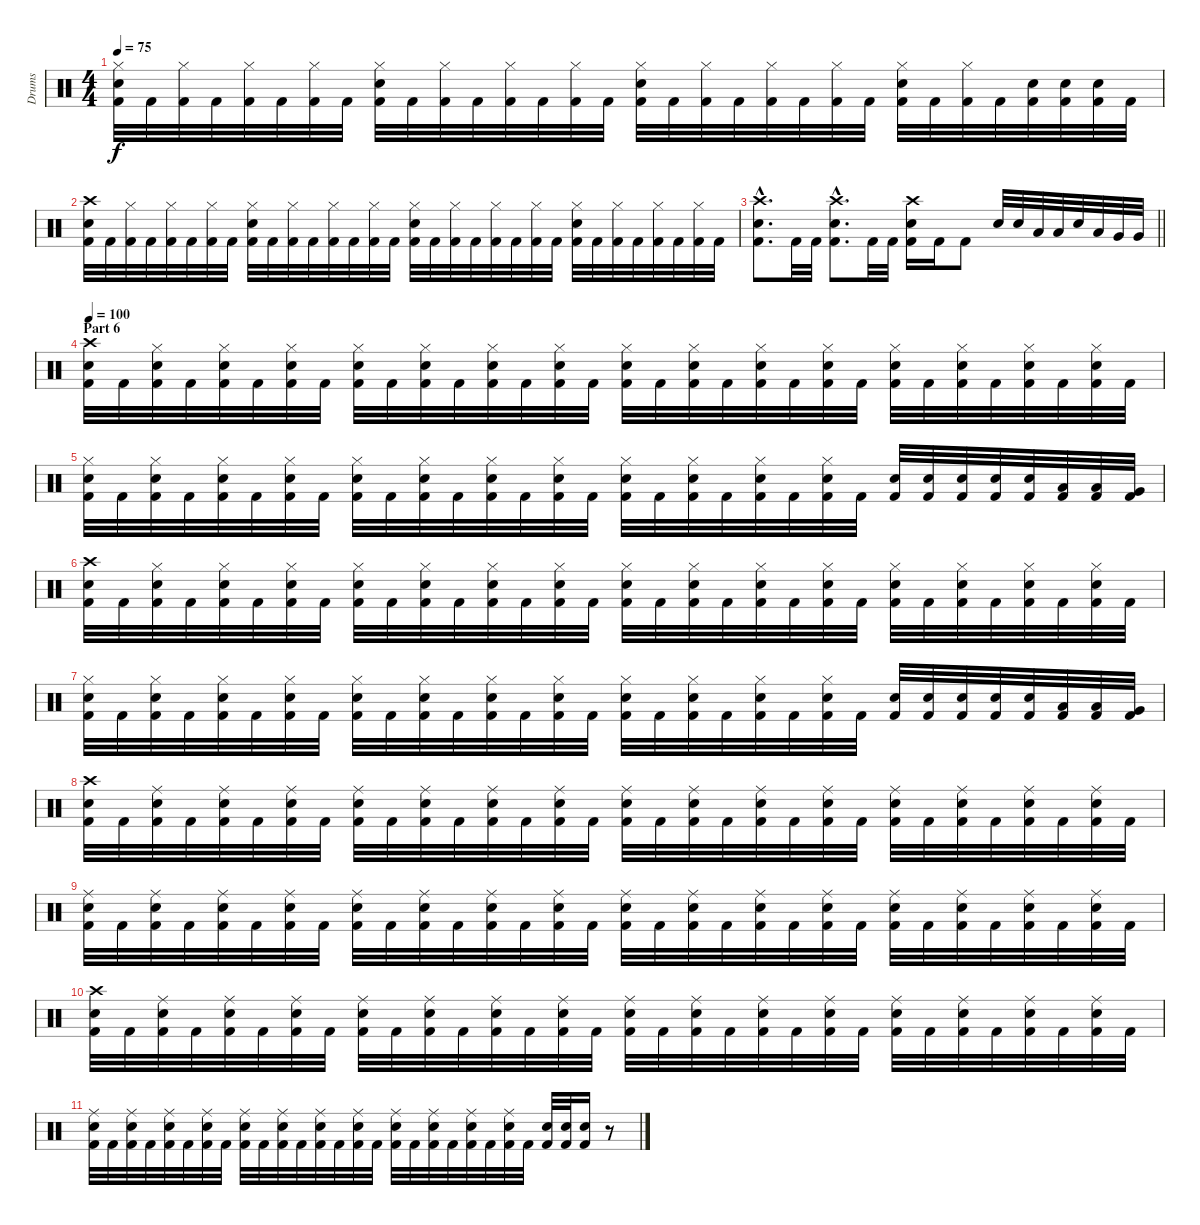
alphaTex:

\track ("Drums" "Drums") {instrument percussion}
\staff {score}
\articulation defaults
\ts (4 4)
\tempo 75
\clef neutral
\ks c
("Hi-Hat (closed)" "Electric Snare (hit)" "Kick (hit) 2").32{dy f} "Kick (hit) 2".32 ("Hi-Hat (closed)" "Kick (hit) 2").32 "Kick (hit) 2".32 ("Hi-Hat (closed)" "Kick (hit) 2").32 "Kick (hit) 2".32 ("Hi-Hat (closed)" "Kick (hit) 2").32 "Kick (hit) 2".32 ("Hi-Hat (closed)" "Electric Snare (hit)" "Kick (hit) 2").32 "Kick (hit) 2".32 ("Hi-Hat (closed)" "Kick (hit) 2").32 "Kick (hit) 2".32 ("Hi-Hat (closed)" "Kick (hit) 2").32 "Kick (hit) 2".32 ("Hi-Hat (closed)" "Kick (hit) 2").32 "Kick (hit) 2".32 ("Hi-Hat (closed)" "Electric Snare (hit)" "Kick (hit) 2").32 "Kick (hit) 2".32 ("Hi-Hat (closed)" "Kick (hit) 2").32 "Kick (hit) 2".32 ("Hi-Hat (closed)" "Kick (hit) 2").32 "Kick (hit) 2".32 ("Hi-Hat (closed)" "Kick (hit) 2").32 "Kick (hit) 2".32 ("Hi-Hat (closed)" "Electric Snare (hit)" "Kick (hit) 2").32 "Kick (hit) 2".32 ("Hi-Hat (closed)" "Kick (hit) 2").32 "Kick (hit) 2".32 ("Electric Snare (hit)" "Kick (hit) 2").32 ("Electric Snare (hit)" "Kick (hit) 2").32 ("Electric Snare (hit)" "Kick (hit) 2").32 "Kick (hit) 2".32 |
("Crash high (hit)" "Electric Snare (hit)" "Kick (hit) 2").32 "Kick (hit) 2".32 ("Hi-Hat (closed)" "Kick (hit) 2").32 "Kick (hit) 2".32 ("Hi-Hat (closed)" "Kick (hit) 2").32 "Kick (hit) 2".32 ("Hi-Hat (closed)" "Kick (hit) 2").32 "Kick (hit) 2".32 ("Hi-Hat (closed)" "Electric Snare (hit)" "Kick (hit) 2").32 "Kick (hit) 2".32 ("Hi-Hat (closed)" "Kick (hit) 2").32 "Kick (hit) 2".32 ("Hi-Hat (closed)" "Kick (hit) 2").32 "Kick (hit) 2".32 ("Hi-Hat (closed)" "Kick (hit) 2").32 "Kick (hit) 2".32 ("Hi-Hat (closed)" "Electric Snare (hit)" "Kick (hit) 2").32 "Kick (hit) 2".32 ("Hi-Hat (closed)" "Kick (hit) 2").32 "Kick (hit) 2".32 ("Hi-Hat (closed)" "Kick (hit) 2").32 "Kick (hit) 2".32 ("Hi-Hat (closed)" "Kick (hit) 2").32 "Kick (hit) 2".32 ("Hi-Hat (closed)" "Electric Snare (hit)" "Kick (hit) 2").32 "Kick (hit) 2".32 ("Hi-Hat (closed)" "Kick (hit) 2").32 "Kick (hit) 2".32 ("Hi-Hat (closed)" "Kick (hit) 2").32 "Kick (hit) 2".32 ("Hi-Hat (closed)" "Kick (hit) 2").32 "Kick (hit) 2".32 |
\barLineRight lightlight
("Crash high (hit)"{hac} "Electric Snare (hit)"{hac} "Kick (hit) 2"{hac}).8{d} "Kick (hit) 2".32 "Kick (hit) 2".32 ("Crash high (hit)"{hac} "Electric Snare (hit)"{hac} "Kick (hit) 2"{hac}).8{d} "Kick (hit) 2".32 "Kick (hit) 2".32 ("Crash high (hit)" "Electric Snare (hit)" "Kick (hit) 2").16 "Kick (hit) 2".16 "Kick (hit) 2".8 "Electric Snare (hit)".32 "Electric Snare (hit)".32 "Low Tom (hit)".32 "Low Tom (hit)".32 "Electric Snare (hit)".32 "Low Tom (hit)".32 "Very Low Tom (hit)".32 "Very Low Tom (hit)".32 |
\section ("" "Part 6")
\tempo 100
("Crash high (hit)" "Electric Snare (hit)" "Kick (hit) 2").32 "Kick (hit) 2".32 ("Hi-Hat (closed)" "Electric Snare (hit)" "Kick (hit) 2").32 "Kick (hit) 2".32 ("Hi-Hat (closed)" "Electric Snare (hit)" "Kick (hit) 2").32 "Kick (hit) 2".32 ("Hi-Hat (closed)" "Electric Snare (hit)" "Kick (hit) 2").32 "Kick (hit) 2".32 ("Hi-Hat (closed)" "Electric Snare (hit)" "Kick (hit) 2").32 "Kick (hit) 2".32 ("Hi-Hat (closed)" "Electric Snare (hit)" "Kick (hit) 2").32 "Kick (hit) 2".32 ("Hi-Hat (closed)" "Electric Snare (hit)" "Kick (hit) 2").32 "Kick (hit) 2".32 ("Hi-Hat (closed)" "Electric Snare (hit)" "Kick (hit) 2").32 "Kick (hit) 2".32 ("Hi-Hat (closed)" "Electric Snare (hit)" "Kick (hit) 2").32 "Kick (hit) 2".32 ("Hi-Hat (closed)" "Electric Snare (hit)" "Kick (hit) 2").32 "Kick (hit) 2".32 ("Hi-Hat (closed)" "Electric Snare (hit)" "Kick (hit) 2").32 "Kick (hit) 2".32 ("Hi-Hat (closed)" "Electric Snare (hit)" "Kick (hit) 2").32 "Kick (hit) 2".32 ("Hi-Hat (closed)" "Electric Snare (hit)" "Kick (hit) 2").32 "Kick (hit) 2".32 ("Hi-Hat (closed)" "Electric Snare (hit)" "Kick (hit) 2").32 "Kick (hit) 2".32 ("Hi-Hat (closed)" "Electric Snare (hit)" "Kick (hit) 2").32 "Kick (hit) 2".32 ("Hi-Hat (closed)" "Electric Snare (hit)" "Kick (hit) 2").32 "Kick (hit) 2".32 |
("Hi-Hat (closed)" "Electric Snare (hit)" "Kick (hit) 2").32 "Kick (hit) 2".32 ("Hi-Hat (closed)" "Electric Snare (hit)" "Kick (hit) 2").32 "Kick (hit) 2".32 ("Hi-Hat (closed)" "Electric Snare (hit)" "Kick (hit) 2").32 "Kick (hit) 2".32 ("Hi-Hat (closed)" "Electric Snare (hit)" "Kick (hit) 2").32 "Kick (hit) 2".32 ("Hi-Hat (closed)" "Electric Snare (hit)" "Kick (hit) 2").32 "Kick (hit) 2".32 ("Hi-Hat (closed)" "Electric Snare (hit)" "Kick (hit) 2").32 "Kick (hit) 2".32 ("Hi-Hat (closed)" "Electric Snare (hit)" "Kick (hit) 2").32 "Kick (hit) 2".32 ("Hi-Hat (closed)" "Electric Snare (hit)" "Kick (hit) 2").32 "Kick (hit) 2".32 ("Hi-Hat (closed)" "Electric Snare (hit)" "Kick (hit) 2").32 "Kick (hit) 2".32 ("Hi-Hat (closed)" "Electric Snare (hit)" "Kick (hit) 2").32 "Kick (hit) 2".32 ("Hi-Hat (closed)" "Electric Snare (hit)" "Kick (hit) 2").32 "Kick (hit) 2".32 ("Hi-Hat (closed)" "Electric Snare (hit)" "Kick (hit) 2").32 "Kick (hit) 2".32 ("Electric Snare (hit)" "Kick (hit) 2").32 ("Electric Snare (hit)" "Kick (hit) 2").32 ("Electric Snare (hit)" "Kick (hit) 2").32 ("Electric Snare (hit)" "Kick (hit) 2").32 ("Electric Snare (hit)" "Kick (hit) 2").32 ("Low Tom (hit)" "Kick (hit) 2").32 ("Low Tom (hit)" "Kick (hit) 2").32 ("Very Low Tom (hit)" "Kick (hit) 2").32 |
("Crash high (hit)" "Electric Snare (hit)" "Kick (hit) 2").32 "Kick (hit) 2".32 ("Hi-Hat (closed)" "Electric Snare (hit)" "Kick (hit) 2").32 "Kick (hit) 2".32 ("Hi-Hat (closed)" "Electric Snare (hit)" "Kick (hit) 2").32 "Kick (hit) 2".32 ("Hi-Hat (closed)" "Electric Snare (hit)" "Kick (hit) 2").32 "Kick (hit) 2".32 ("Hi-Hat (closed)" "Electric Snare (hit)" "Kick (hit) 2").32 "Kick (hit) 2".32 ("Hi-Hat (closed)" "Electric Snare (hit)" "Kick (hit) 2").32 "Kick (hit) 2".32 ("Hi-Hat (closed)" "Electric Snare (hit)" "Kick (hit) 2").32 "Kick (hit) 2".32 ("Hi-Hat (closed)" "Electric Snare (hit)" "Kick (hit) 2").32 "Kick (hit) 2".32 ("Hi-Hat (closed)" "Electric Snare (hit)" "Kick (hit) 2").32 "Kick (hit) 2".32 ("Hi-Hat (closed)" "Electric Snare (hit)" "Kick (hit) 2").32 "Kick (hit) 2".32 ("Hi-Hat (closed)" "Electric Snare (hit)" "Kick (hit) 2").32 "Kick (hit) 2".32 ("Hi-Hat (closed)" "Electric Snare (hit)" "Kick (hit) 2").32 "Kick (hit) 2".32 ("Hi-Hat (closed)" "Electric Snare (hit)" "Kick (hit) 2").32 "Kick (hit) 2".32 ("Hi-Hat (closed)" "Electric Snare (hit)" "Kick (hit) 2").32 "Kick (hit) 2".32 ("Hi-Hat (closed)" "Electric Snare (hit)" "Kick (hit) 2").32 "Kick (hit) 2".32 ("Hi-Hat (closed)" "Electric Snare (hit)" "Kick (hit) 2").32 "Kick (hit) 2".32 |
("Hi-Hat (closed)" "Electric Snare (hit)" "Kick (hit) 2").32 "Kick (hit) 2".32 ("Hi-Hat (closed)" "Electric Snare (hit)" "Kick (hit) 2").32 "Kick (hit) 2".32 ("Hi-Hat (closed)" "Electric Snare (hit)" "Kick (hit) 2").32 "Kick (hit) 2".32 ("Hi-Hat (closed)" "Electric Snare (hit)" "Kick (hit) 2").32 "Kick (hit) 2".32 ("Hi-Hat (closed)" "Electric Snare (hit)" "Kick (hit) 2").32 "Kick (hit) 2".32 ("Hi-Hat (closed)" "Electric Snare (hit)" "Kick (hit) 2").32 "Kick (hit) 2".32 ("Hi-Hat (closed)" "Electric Snare (hit)" "Kick (hit) 2").32 "Kick (hit) 2".32 ("Hi-Hat (closed)" "Electric Snare (hit)" "Kick (hit) 2").32 "Kick (hit) 2".32 ("Hi-Hat (closed)" "Electric Snare (hit)" "Kick (hit) 2").32 "Kick (hit) 2".32 ("Hi-Hat (closed)" "Electric Snare (hit)" "Kick (hit) 2").32 "Kick (hit) 2".32 ("Hi-Hat (closed)" "Electric Snare (hit)" "Kick (hit) 2").32 "Kick (hit) 2".32 ("Hi-Hat (closed)" "Electric Snare (hit)" "Kick (hit) 2").32 "Kick (hit) 2".32 ("Electric Snare (hit)" "Kick (hit) 2").32 ("Electric Snare (hit)" "Kick (hit) 2").32 ("Electric Snare (hit)" "Kick (hit) 2").32 ("Electric Snare (hit)" "Kick (hit) 2").32 ("Electric Snare (hit)" "Kick (hit) 2").32 ("Low Tom (hit)" "Kick (hit) 2").32 ("Low Tom (hit)" "Kick (hit) 2").32 ("Very Low Tom (hit)" "Kick (hit) 2").32 |
("Crash high (hit)" "Electric Snare (hit)" "Kick (hit) 2").32 "Kick (hit) 2".32 ("Ride (middle)" "Electric Snare (hit)" "Kick (hit) 2").32 "Kick (hit) 2".32 ("Ride (middle)" "Electric Snare (hit)" "Kick (hit) 2").32 "Kick (hit) 2".32 ("Ride (middle)" "Electric Snare (hit)" "Kick (hit) 2").32 "Kick (hit) 2".32 ("Ride (middle)" "Electric Snare (hit)" "Kick (hit) 2").32 "Kick (hit) 2".32 ("Ride (middle)" "Electric Snare (hit)" "Kick (hit) 2").32 "Kick (hit) 2".32 ("Ride (middle)" "Electric Snare (hit)" "Kick (hit) 2").32 "Kick (hit) 2".32 ("Ride (middle)" "Electric Snare (hit)" "Kick (hit) 2").32 "Kick (hit) 2".32 ("Ride (middle)" "Electric Snare (hit)" "Kick (hit) 2").32 "Kick (hit) 2".32 ("Ride (middle)" "Electric Snare (hit)" "Kick (hit) 2").32 "Kick (hit) 2".32 ("Ride (middle)" "Electric Snare (hit)" "Kick (hit) 2").32 "Kick (hit) 2".32 ("Ride (middle)" "Electric Snare (hit)" "Kick (hit) 2").32 "Kick (hit) 2".32 ("Ride (middle)" "Electric Snare (hit)" "Kick (hit) 2").32 "Kick (hit) 2".32 ("Ride (middle)" "Electric Snare (hit)" "Kick (hit) 2").32 "Kick (hit) 2".32 ("Ride (middle)" "Electric Snare (hit)" "Kick (hit) 2").32 "Kick (hit) 2".32 ("Ride (middle)" "Electric Snare (hit)" "Kick (hit) 2").32 "Kick (hit) 2".32 |
("Ride (middle)" "Electric Snare (hit)" "Kick (hit) 2").32 "Kick (hit) 2".32 ("Ride (middle)" "Electric Snare (hit)" "Kick (hit) 2").32 "Kick (hit) 2".32 ("Ride (middle)" "Electric Snare (hit)" "Kick (hit) 2").32 "Kick (hit) 2".32 ("Ride (middle)" "Electric Snare (hit)" "Kick (hit) 2").32 "Kick (hit) 2".32 ("Ride (middle)" "Electric Snare (hit)" "Kick (hit) 2").32 "Kick (hit) 2".32 ("Ride (middle)" "Electric Snare (hit)" "Kick (hit) 2").32 "Kick (hit) 2".32 ("Ride (middle)" "Electric Snare (hit)" "Kick (hit) 2").32 "Kick (hit) 2".32 ("Ride (middle)" "Electric Snare (hit)" "Kick (hit) 2").32 "Kick (hit) 2".32 ("Ride (middle)" "Electric Snare (hit)" "Kick (hit) 2").32 "Kick (hit) 2".32 ("Ride (middle)" "Electric Snare (hit)" "Kick (hit) 2").32 "Kick (hit) 2".32 ("Ride (middle)" "Electric Snare (hit)" "Kick (hit) 2").32 "Kick (hit) 2".32 ("Ride (middle)" "Electric Snare (hit)" "Kick (hit) 2").32 "Kick (hit) 2".32 ("Ride (middle)" "Electric Snare (hit)" "Kick (hit) 2").32 "Kick (hit) 2".32 ("Ride (middle)" "Electric Snare (hit)" "Kick (hit) 2").32 "Kick (hit) 2".32 ("Ride (middle)" "Electric Snare (hit)" "Kick (hit) 2").32 "Kick (hit) 2".32 ("Ride (middle)" "Electric Snare (hit)" "Kick (hit) 2").32 "Kick (hit) 2".32 |
("Crash high (hit)" "Electric Snare (hit)" "Kick (hit) 2").32 "Kick (hit) 2".32 ("Ride (middle)" "Electric Snare (hit)" "Kick (hit) 2").32 "Kick (hit) 2".32 ("Ride (middle)" "Electric Snare (hit)" "Kick (hit) 2").32 "Kick (hit) 2".32 ("Ride (middle)" "Electric Snare (hit)" "Kick (hit) 2").32 "Kick (hit) 2".32 ("Ride (middle)" "Electric Snare (hit)" "Kick (hit) 2").32 "Kick (hit) 2".32 ("Ride (middle)" "Electric Snare (hit)" "Kick (hit) 2").32 "Kick (hit) 2".32 ("Ride (middle)" "Electric Snare (hit)" "Kick (hit) 2").32 "Kick (hit) 2".32 ("Ride (middle)" "Electric Snare (hit)" "Kick (hit) 2").32 "Kick (hit) 2".32 ("Ride (middle)" "Electric Snare (hit)" "Kick (hit) 2").32 "Kick (hit) 2".32 ("Ride (middle)" "Electric Snare (hit)" "Kick (hit) 2").32 "Kick (hit) 2".32 ("Ride (middle)" "Electric Snare (hit)" "Kick (hit) 2").32 "Kick (hit) 2".32 ("Ride (middle)" "Electric Snare (hit)" "Kick (hit) 2").32 "Kick (hit) 2".32 ("Ride (middle)" "Electric Snare (hit)" "Kick (hit) 2").32 "Kick (hit) 2".32 ("Ride (middle)" "Electric Snare (hit)" "Kick (hit) 2").32 "Kick (hit) 2".32 ("Ride (middle)" "Electric Snare (hit)" "Kick (hit) 2").32 "Kick (hit) 2".32 ("Ride (middle)" "Electric Snare (hit)" "Kick (hit) 2").32 "Kick (hit) 2".32 |
("Ride (middle)" "Electric Snare (hit)" "Kick (hit) 2").32 "Kick (hit) 2".32 ("Ride (middle)" "Electric Snare (hit)" "Kick (hit) 2").32 "Kick (hit) 2".32 ("Ride (middle)" "Electric Snare (hit)" "Kick (hit) 2").32 "Kick (hit) 2".32 ("Ride (middle)" "Electric Snare (hit)" "Kick (hit) 2").32 "Kick (hit) 2".32 ("Ride (middle)" "Electric Snare (hit)" "Kick (hit) 2").32 "Kick (hit) 2".32 ("Ride (middle)" "Electric Snare (hit)" "Kick (hit) 2").32 "Kick (hit) 2".32 ("Ride (middle)" "Electric Snare (hit)" "Kick (hit) 2").32 "Kick (hit) 2".32 ("Ride (middle)" "Electric Snare (hit)" "Kick (hit) 2").32 "Kick (hit) 2".32 ("Ride (middle)" "Electric Snare (hit)" "Kick (hit) 2").32 "Kick (hit) 2".32 ("Ride (middle)" "Electric Snare (hit)" "Kick (hit) 2").32 "Kick (hit) 2".32 ("Ride (middle)" "Electric Snare (hit)" "Kick (hit) 2").32 "Kick (hit) 2".32 ("Ride (middle)" "Electric Snare (hit)" "Kick (hit) 2").32 "Kick (hit) 2".32 ("Electric Snare (hit)" "Kick (hit) 2").32 ("Electric Snare (hit)" "Kick (hit) 2").32 ("Electric Snare (hit)" "Kick (hit) 2").16 r.8
